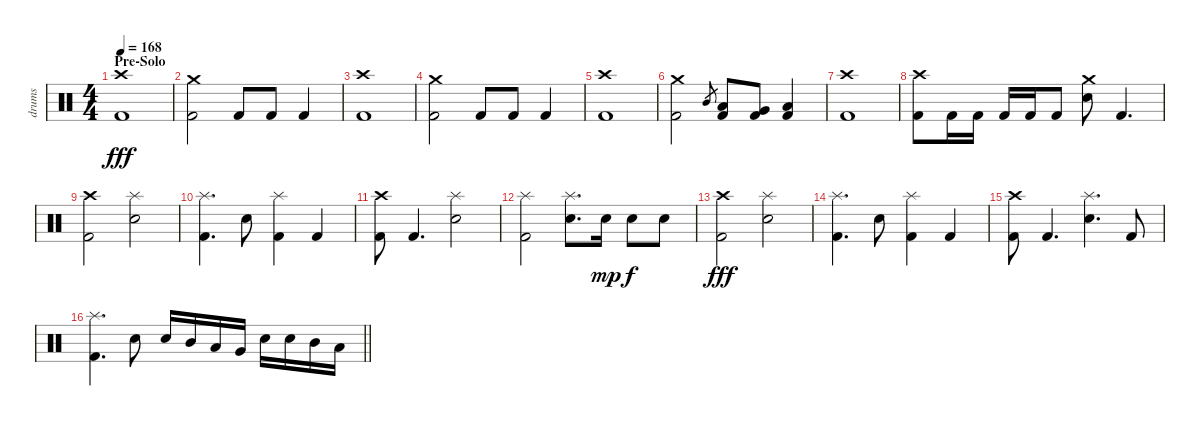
\track ("drums" "drums") {instrument percussion}
\staff {score}
\articulation defaults
\ts (4 4)
\section ("" "Pre-Solo")
\tempo 168
\clef neutral
\ks c
("Crash high (hit)" "Kick (hit) 2").1{dy fff} |
("Crash medium (hit)" "Kick (hit) 2").2 "Kick (hit) 2".8 "Kick (hit) 2".8 "Kick (hit) 2".4 |
("Crash high (hit)" "Kick (hit) 2").1 |
("Crash medium (hit)" "Kick (hit) 2").2 "Kick (hit) 2".8 "Kick (hit) 2".8 "Kick (hit) 2".4 |
("Crash high (hit)" "Kick (hit) 2").1 |
("Crash medium (hit)" "Kick (hit) 2").2 "Mid Tom (hit)".8{gr} ("Low Tom (hit)" "Kick (hit) 2").8 ("Very Low Tom (hit)" "Kick (hit) 2").8 ("Low Floor Tom (hit)" "Kick (hit) 2").4 |
("Crash high (hit)" "Kick (hit) 2").1 |
("Crash high (hit)" "Kick (hit) 2").8 "Kick (hit) 2".16 "Kick (hit) 2".16 "Kick (hit) 2".16 "Kick (hit) 2".16 "Kick (hit) 2".8 ("Crash medium (hit)" "Snare (hit) 2").8 "Kick (hit) 2".4{d} |
("Crash high (hit)" "Kick (hit) 2").2 ("Splash (hit)" "Snare (hit) 2").2 |
("Splash (hit)" "Kick (hit) 2").4{d} "Snare (hit) 2".8 ("Splash (hit)" "Kick (hit) 2").4 "Kick (hit) 2".4 |
("Crash high (hit)" "Kick (hit) 2").8 "Kick (hit) 2".4{d} ("Splash (hit)" "Snare (hit) 2").2 |
("Splash (hit)" "Kick (hit) 2").2 ("Splash (hit)" "Snare (hit) 2").8{d} "Snare (hit) 2".16{dy mp} "Snare (hit) 2".8{dy f} "Snare (hit) 2".8 |
("Crash high (hit)" "Kick (hit) 2").2{dy fff} ("Splash (hit)" "Snare (hit) 2").2 |
("Splash (hit)" "Kick (hit) 2").4{d} "Snare (hit) 2".8 ("Splash (hit)" "Kick (hit) 2").4 "Kick (hit) 2".4 |
("Crash high (hit)" "Kick (hit) 2").8 "Kick (hit) 2".4{d} ("Splash (hit)" "Snare (hit) 2").4{d} "Kick (hit) 2".8 |
\barLineRight lightlight
("Splash (hit)" "Kick (hit) 2").4{d} "Snare (hit) 2".8 "Snare (hit) 2".16 "Mid Tom (hit)".16 "Low Tom (hit)".16 "Very Low Tom (hit)".16 "Snare (hit) 2".16 "Snare (hit) 2".16 "Mid Tom (hit)".16 "Low Tom (hit)".16
